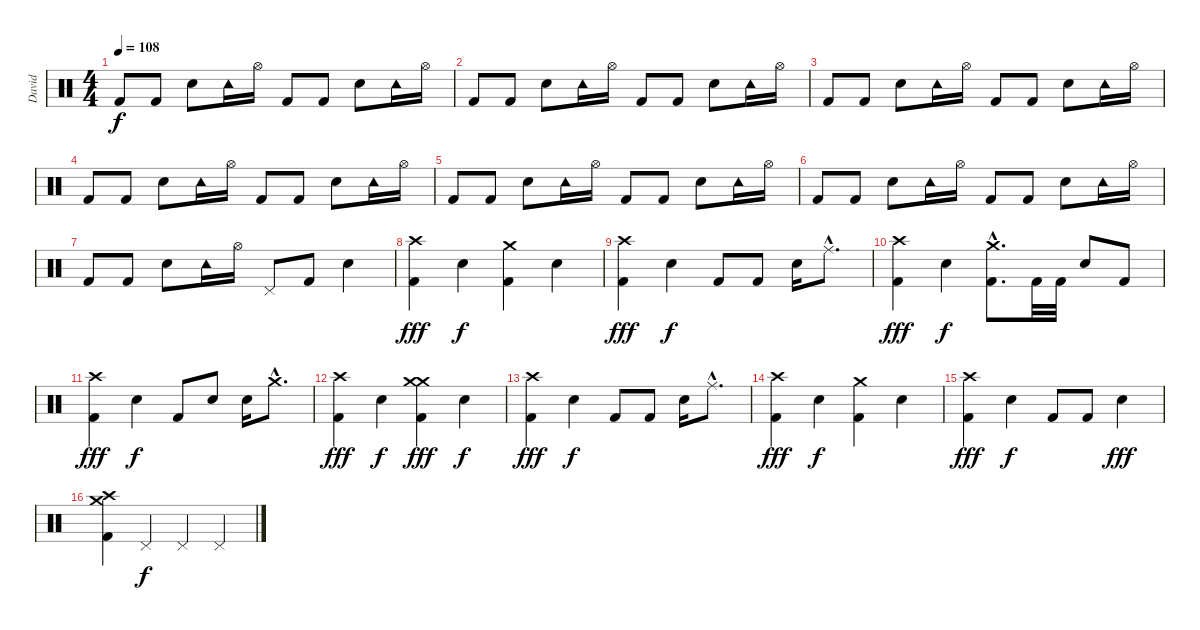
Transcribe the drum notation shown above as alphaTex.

\track ("David" "David") {instrument percussion}
\staff {score}
\articulation defaults
\ts (4 4)
\tempo 108
\clef neutral
\ks c "Kick (hit) 2".8{dy f} "Kick (hit) 2".8 "Snare (hit) 2".8 "Tambourine (hit)".16 "Hi-Hat (open)".16 "Kick (hit) 2".8 "Kick (hit) 2".8 "Snare (hit) 2".8 "Tambourine (hit)".16 "Hi-Hat (open)".16
|
"Kick (hit) 2".8 "Kick (hit) 2".8 "Snare (hit) 2".8 "Tambourine (hit)".16 "Hi-Hat (open)".16 "Kick (hit) 2".8 "Kick (hit) 2".8 "Snare (hit) 2".8 "Tambourine (hit)".16 "Hi-Hat (open)".16 |
"Kick (hit) 2".8 "Kick (hit) 2".8 "Snare (hit) 2".8 "Tambourine (hit)".16 "Hi-Hat (open)".16 "Kick (hit) 2".8 "Kick (hit) 2".8 "Snare (hit) 2".8 "Tambourine (hit)".16 "Hi-Hat (open)".16 |
"Kick (hit) 2".8 "Kick (hit) 2".8 "Snare (hit) 2".8 "Tambourine (hit)".16 "Hi-Hat (open)".16 "Kick (hit) 2".8 "Kick (hit) 2".8 "Snare (hit) 2".8 "Tambourine (hit)".16 "Hi-Hat (open)".16 |
"Kick (hit) 2".8 "Kick (hit) 2".8 "Snare (hit) 2".8 "Tambourine (hit)".16 "Hi-Hat (open)".16 "Kick (hit) 2".8 "Kick (hit) 2".8 "Snare (hit) 2".8 "Tambourine (hit)".16 "Hi-Hat (open)".16 |
"Kick (hit) 2".8 "Kick (hit) 2".8 "Snare (hit) 2".8 "Tambourine (hit)".16 "Hi-Hat (open)".16 "Kick (hit) 2".8 "Kick (hit) 2".8 "Snare (hit) 2".8 "Tambourine (hit)".16 "Hi-Hat (open)".16 |
"Kick (hit) 2".8 "Kick (hit) 2".8 "Snare (hit) 2".8 "Tambourine (hit)".16 "Hi-Hat (open)".16 "Pedal Hi-Hat (hit)".8 "Kick (hit) 2".8 "Snare (hit) 2".4 |
("Crash high (hit)" "Kick (hit) 2").4{dy fff} "Snare (hit) 2".4{dy f} ("Crash medium (hit)" "Kick (hit) 2").4 "Snare (hit) 2".4 |
("Crash high (hit)" "Kick (hit) 2").4{dy fff} "Snare (hit) 2".4{dy f} "Kick (hit) 2".8 "Kick (hit) 2".8 "Snare (hit) 2".16 "Ride (middle)"{hac}.8{d} |
("Crash high (hit)" "Kick (hit) 2").4{dy fff} "Snare (hit) 2".4{dy f} ("Crash medium (hit)"{hac} "Kick (hit) 2"{hac}).8{d} "Kick (hit) 2".32 "Kick (hit) 2".32 "Snare (hit) 2".8 "Kick (hit) 2".8 |
("Crash high (hit)" "Kick (hit) 2").4{dy fff} "Snare (hit) 2".4{dy f} "Kick (hit) 2".8 "Snare (hit) 2".8 "Snare (hit) 2".16 "Crash medium (hit)"{hac}.8{d} |
("Crash high (hit)" "Kick (hit) 2").4{dy fff} "Snare (hit) 2".4{dy f} ("Crash medium (hit)" "Crash medium (hit)" "Kick (hit) 2").4{dy fff} "Snare (hit) 2".4{dy f} |
("Crash high (hit)" "Kick (hit) 2").4{dy fff} "Snare (hit) 2".4{dy f} "Kick (hit) 2".8 "Kick (hit) 2".8 "Snare (hit) 2".16 "Ride (middle)"{hac}.8{d} |
("Crash high (hit)" "Kick (hit) 2").4{dy fff} "Snare (hit) 2".4{dy f} ("Crash medium (hit)" "Kick (hit) 2").4 "Snare (hit) 2".4 |
("Crash high (hit)" "Kick (hit) 2").4{dy fff} "Snare (hit) 2".4{dy f} "Kick (hit) 2".8 "Kick (hit) 2".8 "Snare (hit) 2".4{dy fff} |
("Crash medium (hit)" "Crash high (hit)" "Kick (hit) 2").4 "Pedal Hi-Hat (hit)".4{dy f} "Pedal Hi-Hat (hit)".4 "Pedal Hi-Hat (hit)".4
